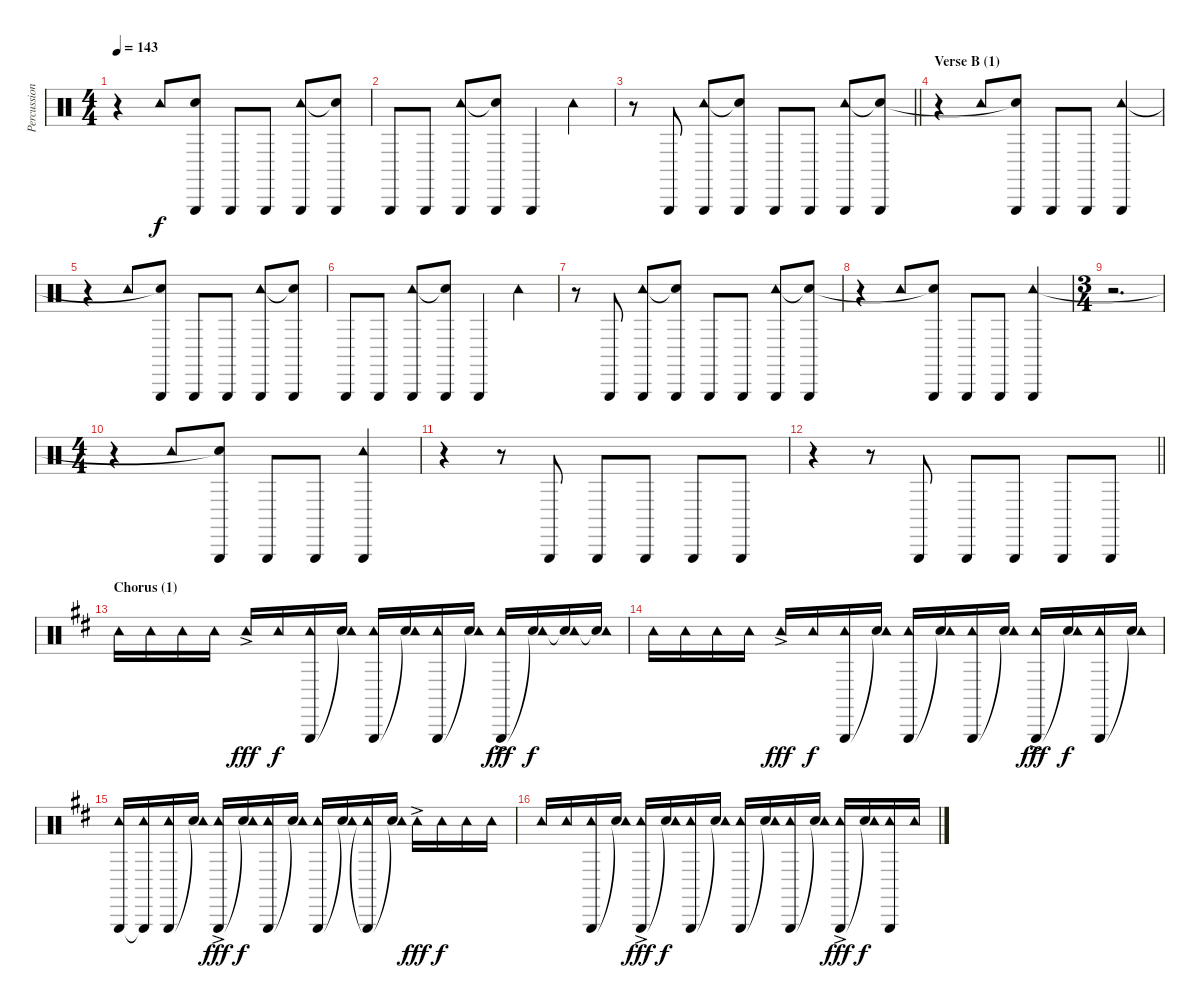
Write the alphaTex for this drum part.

\track ("Percussion" "Percussion") {instrument percussion}
\staff {score}
\articulation defaults
\ts (4 4)
\tempo 143
\clef neutral
\ks aminor
r.4{dy f} "Tambourine (hit)".8 ("Triangle (hit)" "Snare (hit)"{t}).8 "Triangle (hit)".8 "Triangle (hit)".8 ("Triangle (hit)" "Tambourine (hit)").8 ("Triangle (hit)" "Snare (hit)"{t}).8 |
"Triangle (hit)".8 "Triangle (hit)".8 ("Triangle (hit)" "Tambourine (hit)").8 ("Triangle (hit)" "Snare (hit)"{t}).8 "Triangle (hit)".4 "Tambourine (hit)".4 |
\barLineRight lightlight
r.8 "Triangle (hit)".8 ("Triangle (hit)" "Tambourine (hit)").8 ("Triangle (hit)" "Snare (hit)"{t}).8 "Triangle (hit)".8 "Triangle (hit)".8 ("Triangle (hit)" "Tambourine (hit)").8 ("Triangle (hit)" "Snare (hit)"{t}).8 |
\section ("" "Verse B (1)")
r.4 "Tambourine (hit)".8 ("Triangle (hit)" "Snare (hit)"{t}).8 "Triangle (hit)".8 "Triangle (hit)".8 ("Triangle (hit)" "Tambourine (hit)").4 |
r.4 "Tambourine (hit)".8 ("Triangle (hit)" "Snare (hit)"{t}).8 "Triangle (hit)".8 "Triangle (hit)".8 ("Triangle (hit)" "Tambourine (hit)").8 ("Triangle (hit)" "Snare (hit)"{t}).8 |
"Triangle (hit)".8 "Triangle (hit)".8 ("Triangle (hit)" "Tambourine (hit)").8 ("Triangle (hit)" "Snare (hit)"{t}).8 "Triangle (hit)".4 "Tambourine (hit)".4 |
r.8 "Triangle (hit)".8 ("Triangle (hit)" "Tambourine (hit)").8 ("Triangle (hit)" "Snare (hit)"{t}).8 "Triangle (hit)".8 "Triangle (hit)".8 ("Triangle (hit)" "Tambourine (hit)").8 ("Triangle (hit)" "Snare (hit)"{t}).8 |
r.4 "Tambourine (hit)".8 ("Triangle (hit)" "Snare (hit)"{t}).8 "Triangle (hit)".8 "Triangle (hit)".8 ("Triangle (hit)" "Tambourine (hit)").4 |
\ts (3 4)
r.2{d} |
\ts (4 4)
r.4 "Tambourine (hit)".8 ("Triangle (hit)" "Snare (hit)"{t}).8 "Triangle (hit)".8 "Triangle (hit)".8 ("Triangle (hit)" "Tambourine (hit)").4 |
r.4 r.8 "Triangle (hit)".8 "Triangle (hit)".8 "Triangle (hit)".8 "Triangle (hit)".8 "Triangle (hit)".8 |
\barLineRight lightlight
r.4 r.8 "Triangle (hit)".8 "Triangle (hit)".8 "Triangle (hit)".8 "Triangle (hit)".8 "Triangle (hit)".8 |
\section ("" "Chorus (1)")
\ks d "Tambourine (hit)".16 "Tambourine (hit)".16 "Tambourine (hit)".16 "Tambourine (hit)".16 "Tambourine (hit)"{ac}.16{dy fff} "Tambourine (hit)".16{dy f}
("Triangle (hit)" "Tambourine (hit)").16 ("Snare (hit)"{t} "Tambourine (hit)").16 ("Triangle (hit)" "Tambourine (hit)").16 ("Snare (hit)"{t} "Tambourine (hit)").16 ("Triangle (hit)" "Tambourine (hit)").16 ("Snare (hit)"{t} "Tambourine (hit)").16 ("Triangle (hit)" "Tambourine (hit)"{ac}).16{dy fff} ("Snare (hit)"{t} "Tambourine (hit)").16{dy f} ("Snare (hit)"{t} "Tambourine (hit)").16 ("Snare (hit)"{t} "Tambourine (hit)").16 |
"Tambourine (hit)".16 "Tambourine (hit)".16 "Tambourine (hit)".16 "Tambourine (hit)".16 "Tambourine (hit)"{ac}.16{dy fff} "Tambourine (hit)".16{dy f} ("Triangle (hit)" "Tambourine (hit)").16 ("Snare (hit)"{t} "Tambourine (hit)").16 ("Triangle (hit)" "Tambourine (hit)").16 ("Snare (hit)"{t} "Tambourine (hit)").16 ("Triangle (hit)" "Tambourine (hit)").16 ("Snare (hit)"{t} "Tambourine (hit)").16 ("Triangle (hit)" "Tambourine (hit)"{ac}).16{dy fff} ("Snare (hit)"{t} "Tambourine (hit)").16{dy f} ("Triangle (hit)" "Tambourine (hit)").16 ("Snare (hit)"{t} "Tambourine (hit)").16 |
("Triangle (hit)" "Tambourine (hit)").16 ("Triangle (hit)"{t} "Tambourine (hit)").16 ("Triangle (hit)" "Tambourine (hit)").16 ("Snare (hit)"{t} "Tambourine (hit)").16 ("Triangle (hit)" "Tambourine (hit)"{ac}).16{dy fff} ("Snare (hit)"{t} "Tambourine (hit)").16{dy f} ("Triangle (hit)" "Tambourine (hit)").16 ("Snare (hit)"{t} "Tambourine (hit)").16 ("Triangle (hit)" "Tambourine (hit)").16 ("Snare (hit)"{t} "Tambourine (hit)").16 ("Triangle (hit)"{t} "Tambourine (hit)").16 ("Snare (hit)"{t} "Tambourine (hit)").16 "Tambourine (hit)"{ac}.16{dy fff} "Tambourine (hit)".16{dy f} "Tambourine (hit)".16 "Tambourine (hit)".16 |
"Tambourine (hit)".16 "Tambourine (hit)".16 ("Triangle (hit)" "Tambourine (hit)").16 ("Snare (hit)"{t} "Tambourine (hit)").16 ("Triangle (hit)" "Tambourine (hit)"{ac}).16{dy fff} ("Snare (hit)"{t} "Tambourine (hit)").16{dy f} ("Triangle (hit)" "Tambourine (hit)").16 ("Snare (hit)"{t} "Tambourine (hit)").16 ("Triangle (hit)" "Tambourine (hit)").16 ("Snare (hit)"{t} "Tambourine (hit)").16 ("Triangle (hit)" "Tambourine (hit)").16 ("Snare (hit)"{t} "Tambourine (hit)").16 ("Triangle (hit)" "Tambourine (hit)"{ac}).16{dy fff} ("Snare (hit)"{t} "Tambourine (hit)").16{dy f} ("Triangle (hit)" "Tambourine (hit)").16 "Tambourine (hit)".16
